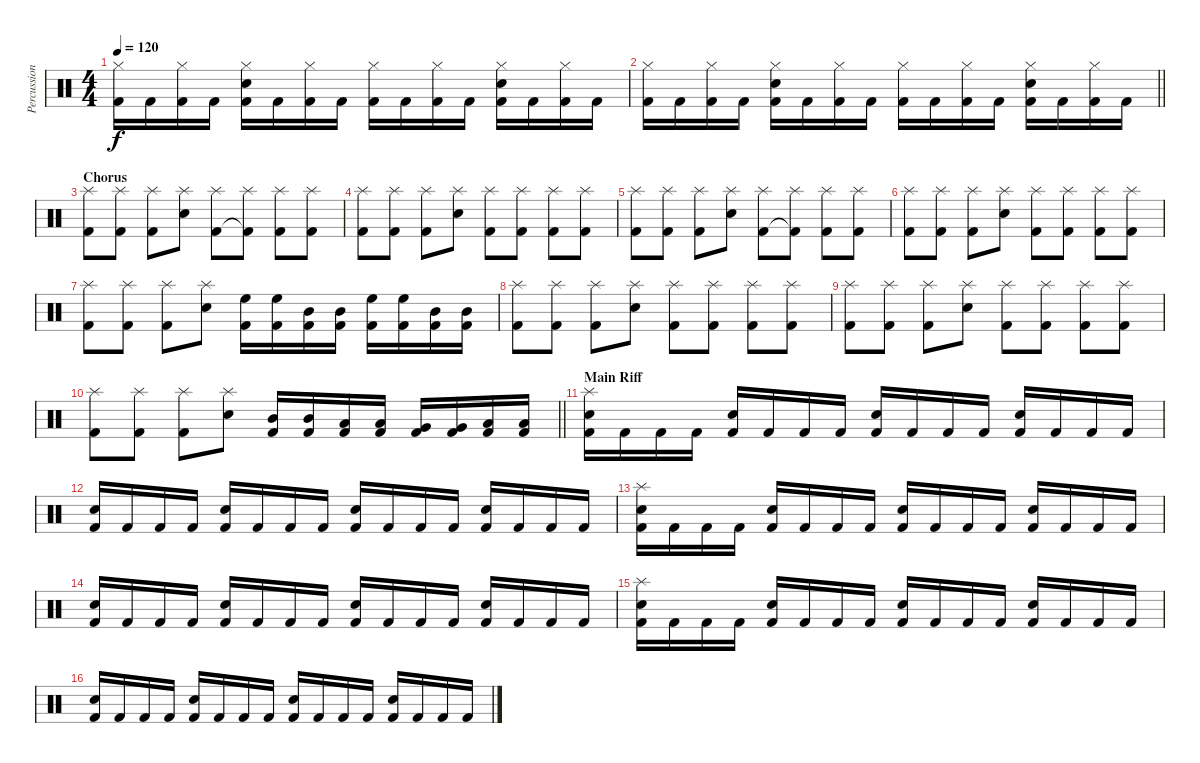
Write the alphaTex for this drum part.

\track ("Percussion" "Percussion") {instrument percussion}
\staff {score}
\articulation defaults
\ts (4 4)
\tempo 120
\clef neutral
\ks c
("Hi-Hat (closed)" "Kick (hit) 2").16{dy f} "Kick (hit) 2".16 ("Hi-Hat (closed)" "Kick (hit) 2").16 "Kick (hit) 2".16 ("Hi-Hat (closed)" "Electric Snare (hit)" "Kick (hit) 2").16 "Kick (hit) 2".16 ("Hi-Hat (closed)" "Kick (hit) 2").16 "Kick (hit) 2".16 ("Hi-Hat (closed)" "Kick (hit) 2").16 "Kick (hit) 2".16 ("Hi-Hat (closed)" "Kick (hit) 2").16 "Kick (hit) 2".16 ("Hi-Hat (closed)" "Electric Snare (hit)" "Kick (hit) 2").16 "Kick (hit) 2".16 ("Hi-Hat (closed)" "Kick (hit) 2").16 "Kick (hit) 2".16 |
\barLineRight lightlight
("Hi-Hat (closed)" "Kick (hit) 2").16 "Kick (hit) 2".16 ("Hi-Hat (closed)" "Kick (hit) 2").16 "Kick (hit) 2".16 ("Hi-Hat (closed)" "Electric Snare (hit)" "Kick (hit) 2").16 "Kick (hit) 2".16 ("Hi-Hat (closed)" "Kick (hit) 2").16 "Kick (hit) 2".16 ("Hi-Hat (closed)" "Kick (hit) 2").16 "Kick (hit) 2".16 ("Hi-Hat (closed)" "Kick (hit) 2").16 "Kick (hit) 2".16 ("Hi-Hat (closed)" "Electric Snare (hit)" "Kick (hit) 2").16 "Kick (hit) 2".16 ("Hi-Hat (closed)" "Kick (hit) 2").16 "Kick (hit) 2".16 |
\section ("" "Chorus")
("Splash (hit)" "Kick (hit) 2").8 ("Splash (hit)" "Kick (hit) 2").8 ("Splash (hit)" "Kick (hit) 2").8 ("Splash (hit)" "Electric Snare (hit)").8 ("Splash (hit)" "Kick (hit) 2").8 ("Splash (hit)" "Kick (hit) 2"{t}).8 ("Splash (hit)" "Kick (hit) 2").8 ("Splash (hit)" "Kick (hit) 2").8 |
("Splash (hit)" "Kick (hit) 2").8 ("Splash (hit)" "Kick (hit) 2").8 ("Splash (hit)" "Kick (hit) 2").8 ("Splash (hit)" "Electric Snare (hit)").8 ("Splash (hit)" "Kick (hit) 2").8 ("Splash (hit)" "Kick (hit) 2").8 ("Splash (hit)" "Kick (hit) 2").8 ("Splash (hit)" "Kick (hit) 2").8 |
("Splash (hit)" "Kick (hit) 2").8 ("Splash (hit)" "Kick (hit) 2").8 ("Splash (hit)" "Kick (hit) 2").8 ("Splash (hit)" "Electric Snare (hit)").8 ("Splash (hit)" "Kick (hit) 2").8 ("Splash (hit)" "Kick (hit) 2"{t}).8 ("Splash (hit)" "Kick (hit) 2").8 ("Splash (hit)" "Kick (hit) 2").8 |
("Splash (hit)" "Kick (hit) 2").8 ("Splash (hit)" "Kick (hit) 2").8 ("Splash (hit)" "Kick (hit) 2").8 ("Splash (hit)" "Electric Snare (hit)").8 ("Splash (hit)" "Kick (hit) 2").8 ("Splash (hit)" "Kick (hit) 2").8 ("Splash (hit)" "Kick (hit) 2").8 ("Splash (hit)" "Kick (hit) 2").8 |
("Splash (hit)" "Kick (hit) 2").8 ("Splash (hit)" "Kick (hit) 2").8 ("Splash (hit)" "Kick (hit) 2").8 ("Splash (hit)" "Electric Snare (hit)").8 ("High Floor Tom (hit)" "Kick (hit) 2").16 ("High Floor Tom (hit)" "Kick (hit) 2").16 ("Mid Tom (hit)" "Kick (hit) 2").16 ("Mid Tom (hit)" "Kick (hit) 2").16 ("High Floor Tom (hit)" "Kick (hit) 2").16 ("High Floor Tom (hit)" "Kick (hit) 2").16 ("Mid Tom (hit)" "Kick (hit) 2").16 ("Mid Tom (hit)" "Kick (hit) 2").16 |
("Splash (hit)" "Kick (hit) 2").8 ("Splash (hit)" "Kick (hit) 2").8 ("Splash (hit)" "Kick (hit) 2").8 ("Splash (hit)" "Electric Snare (hit)").8 ("Splash (hit)" "Kick (hit) 2").8 ("Splash (hit)" "Kick (hit) 2").8 ("Splash (hit)" "Kick (hit) 2").8 ("Splash (hit)" "Kick (hit) 2").8 |
("Splash (hit)" "Kick (hit) 2").8 ("Splash (hit)" "Kick (hit) 2").8 ("Splash (hit)" "Kick (hit) 2").8 ("Splash (hit)" "Electric Snare (hit)").8 ("Splash (hit)" "Kick (hit) 2").8 ("Splash (hit)" "Kick (hit) 2").8 ("Splash (hit)" "Kick (hit) 2").8 ("Splash (hit)" "Kick (hit) 2").8 |
\barLineRight lightlight
("Splash (hit)" "Kick (hit) 2").8 ("Splash (hit)" "Kick (hit) 2").8 ("Splash (hit)" "Kick (hit) 2").8 ("Splash (hit)" "Electric Snare (hit)").8 ("Mid Tom (hit)" "Kick (hit) 2").16 ("Mid Tom (hit)" "Kick (hit) 2").16 ("Low Tom (hit)" "Kick (hit) 2").16 ("Low Tom (hit)" "Kick (hit) 2").16 ("Very Low Tom (hit)" "Kick (hit) 2").16 ("Very Low Tom (hit)" "Kick (hit) 2").16 ("Low Floor Tom (hit)" "Kick (hit) 2").16 ("Low Floor Tom (hit)" "Kick (hit) 2").16 |
\section ("" "Main Riff")
("Splash (hit)" "Electric Snare (hit)" "Kick (hit) 2").16 "Kick (hit) 2".16 "Kick (hit) 2".16 "Kick (hit) 2".16 ("Electric Snare (hit)" "Kick (hit) 2").16 "Kick (hit) 2".16 "Kick (hit) 2".16 "Kick (hit) 2".16 ("Electric Snare (hit)" "Kick (hit) 2").16 "Kick (hit) 2".16 "Kick (hit) 2".16 "Kick (hit) 2".16 ("Electric Snare (hit)" "Kick (hit) 2").16 "Kick (hit) 2".16 "Kick (hit) 2".16 "Kick (hit) 2".16 |
("Electric Snare (hit)" "Kick (hit) 2").16 "Kick (hit) 2".16 "Kick (hit) 2".16 "Kick (hit) 2".16 ("Electric Snare (hit)" "Kick (hit) 2").16 "Kick (hit) 2".16 "Kick (hit) 2".16 "Kick (hit) 2".16 ("Electric Snare (hit)" "Kick (hit) 2").16 "Kick (hit) 2".16 "Kick (hit) 2".16 "Kick (hit) 2".16 ("Electric Snare (hit)" "Kick (hit) 2").16 "Kick (hit) 2".16 "Kick (hit) 2".16 "Kick (hit) 2".16 |
("Splash (hit)" "Electric Snare (hit)" "Kick (hit) 2").16 "Kick (hit) 2".16 "Kick (hit) 2".16 "Kick (hit) 2".16 ("Electric Snare (hit)" "Kick (hit) 2").16 "Kick (hit) 2".16 "Kick (hit) 2".16 "Kick (hit) 2".16 ("Electric Snare (hit)" "Kick (hit) 2").16 "Kick (hit) 2".16 "Kick (hit) 2".16 "Kick (hit) 2".16 ("Electric Snare (hit)" "Kick (hit) 2").16 "Kick (hit) 2".16 "Kick (hit) 2".16 "Kick (hit) 2".16 |
("Electric Snare (hit)" "Kick (hit) 2").16 "Kick (hit) 2".16 "Kick (hit) 2".16 "Kick (hit) 2".16 ("Electric Snare (hit)" "Kick (hit) 2").16 "Kick (hit) 2".16 "Kick (hit) 2".16 "Kick (hit) 2".16 ("Electric Snare (hit)" "Kick (hit) 2").16 "Kick (hit) 2".16 "Kick (hit) 2".16 "Kick (hit) 2".16 ("Electric Snare (hit)" "Kick (hit) 2").16 "Kick (hit) 2".16 "Kick (hit) 2".16 "Kick (hit) 2".16 |
("Splash (hit)" "Electric Snare (hit)" "Kick (hit) 2").16 "Kick (hit) 2".16 "Kick (hit) 2".16 "Kick (hit) 2".16 ("Electric Snare (hit)" "Kick (hit) 2").16 "Kick (hit) 2".16 "Kick (hit) 2".16 "Kick (hit) 2".16 ("Electric Snare (hit)" "Kick (hit) 2").16 "Kick (hit) 2".16 "Kick (hit) 2".16 "Kick (hit) 2".16 ("Electric Snare (hit)" "Kick (hit) 2").16 "Kick (hit) 2".16 "Kick (hit) 2".16 "Kick (hit) 2".16 |
("Electric Snare (hit)" "Kick (hit) 2").16 "Kick (hit) 2".16 "Kick (hit) 2".16 "Kick (hit) 2".16 ("Electric Snare (hit)" "Kick (hit) 2").16 "Kick (hit) 2".16 "Kick (hit) 2".16 "Kick (hit) 2".16 ("Electric Snare (hit)" "Kick (hit) 2").16 "Kick (hit) 2".16 "Kick (hit) 2".16 "Kick (hit) 2".16 ("Electric Snare (hit)" "Kick (hit) 2").16 "Kick (hit) 2".16 "Kick (hit) 2".16 "Kick (hit) 2".16
